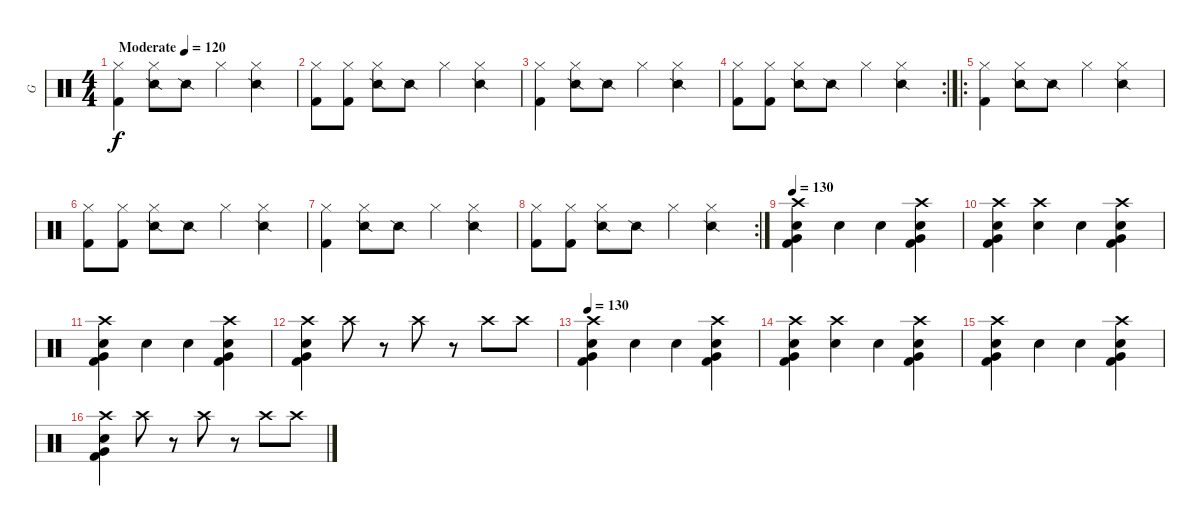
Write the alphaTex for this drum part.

\track ("G" "G") {instrument percussion}
\staff
\articulation defaults
\ts (4 4)
\tempo (120 "Moderate")
\clef neutral
\ks c
("Hi-Hat (closed)" "Kick (hit) 2").4{dy f} ("Hi-Hat (closed)" "Snare (side stick) 2").8 "Snare (side stick) 2".8 "Hi-Hat (closed)".4 ("Hi-Hat (closed)" "Snare (side stick) 2").4 |
("Hi-Hat (closed)" "Kick (hit) 2").8 ("Hi-Hat (closed)" "Kick (hit) 2").8 ("Hi-Hat (closed)" "Snare (side stick) 2").8 "Snare (side stick) 2".8 "Hi-Hat (closed)".4 ("Hi-Hat (closed)" "Snare (side stick) 2").4 |
("Hi-Hat (closed)" "Kick (hit) 2").4 ("Hi-Hat (closed)" "Snare (side stick) 2").8 "Snare (side stick) 2".8 "Hi-Hat (closed)".4 ("Hi-Hat (closed)" "Snare (side stick) 2").4 |
\rc 2
("Hi-Hat (closed)" "Kick (hit) 2").8 ("Hi-Hat (closed)" "Kick (hit) 2").8 ("Hi-Hat (closed)" "Snare (side stick) 2").8 "Snare (side stick) 2".8 "Hi-Hat (closed)".4 ("Hi-Hat (closed)" "Snare (side stick) 2").4 |
\ro
("Hi-Hat (closed)" "Kick (hit) 2").4 ("Hi-Hat (closed)" "Snare (side stick) 2").8 "Snare (side stick) 2".8 "Hi-Hat (closed)".4 ("Hi-Hat (closed)" "Snare (side stick) 2").4 |
("Hi-Hat (closed)" "Kick (hit) 2").8 ("Hi-Hat (closed)" "Kick (hit) 2").8 ("Hi-Hat (closed)" "Snare (side stick) 2").8 "Snare (side stick) 2".8 "Hi-Hat (closed)".4 ("Hi-Hat (closed)" "Snare (side stick) 2").4 |
("Hi-Hat (closed)" "Kick (hit) 2").4 ("Hi-Hat (closed)" "Snare (side stick) 2").8 "Snare (side stick) 2".8 "Hi-Hat (closed)".4 ("Hi-Hat (closed)" "Snare (side stick) 2").4 |
\rc 2
("Hi-Hat (closed)" "Kick (hit) 2").8 ("Hi-Hat (closed)" "Kick (hit) 2").8 ("Hi-Hat (closed)" "Snare (side stick) 2").8 "Snare (side stick) 2".8 "Hi-Hat (closed)".4 ("Hi-Hat (closed)" "Snare (side stick) 2").4 |
\tempo 130
("Kick (hit) 2" "Electric Snare (hit)" "Very Low Tom (hit)" "Crash high (hit)").4 "Snare (hit)".4 "Snare (hit)".4 ("Kick (hit) 2" "Electric Snare (hit)" "Very Low Tom (hit)" "Crash high (hit)").4 |
("Kick (hit) 2" "Electric Snare (hit)" "Very Low Tom (hit)" "Crash high (hit)").4 ("Crash high (hit)" "Snare (hit)").4 "Snare (hit)".4 ("Kick (hit) 2" "Electric Snare (hit)" "Very Low Tom (hit)" "Crash high (hit)").4 |
("Kick (hit) 2" "Electric Snare (hit)" "Very Low Tom (hit)" "Crash high (hit)").4 "Snare (hit)".4 "Snare (hit)".4 ("Kick (hit) 2" "Electric Snare (hit)" "Very Low Tom (hit)" "Crash high (hit)").4 |
("Kick (hit) 2" "Electric Snare (hit)" "Very Low Tom (hit)" "Crash high (hit)").4 "Crash high (hit)".8 r.8 "Crash high (hit)".8 r.8 "Crash high (hit)".8 "Crash high (hit)".8 |
\tempo 130
("Kick (hit) 2" "Electric Snare (hit)" "Very Low Tom (hit)" "Crash high (hit)").4 "Snare (hit)".4 "Snare (hit)".4 ("Kick (hit) 2" "Electric Snare (hit)" "Very Low Tom (hit)" "Crash high (hit)").4 |
("Kick (hit) 2" "Electric Snare (hit)" "Very Low Tom (hit)" "Crash high (hit)").4 ("Crash high (hit)" "Snare (hit)").4 "Snare (hit)".4 ("Kick (hit) 2" "Electric Snare (hit)" "Very Low Tom (hit)" "Crash high (hit)").4 |
("Kick (hit) 2" "Electric Snare (hit)" "Very Low Tom (hit)" "Crash high (hit)").4 "Snare (hit)".4 "Snare (hit)".4 ("Kick (hit) 2" "Electric Snare (hit)" "Very Low Tom (hit)" "Crash high (hit)").4 |
("Kick (hit) 2" "Electric Snare (hit)" "Very Low Tom (hit)" "Crash high (hit)").4 "Crash high (hit)".8 r.8 "Crash high (hit)".8 r.8 "Crash high (hit)".8 "Crash high (hit)".8
